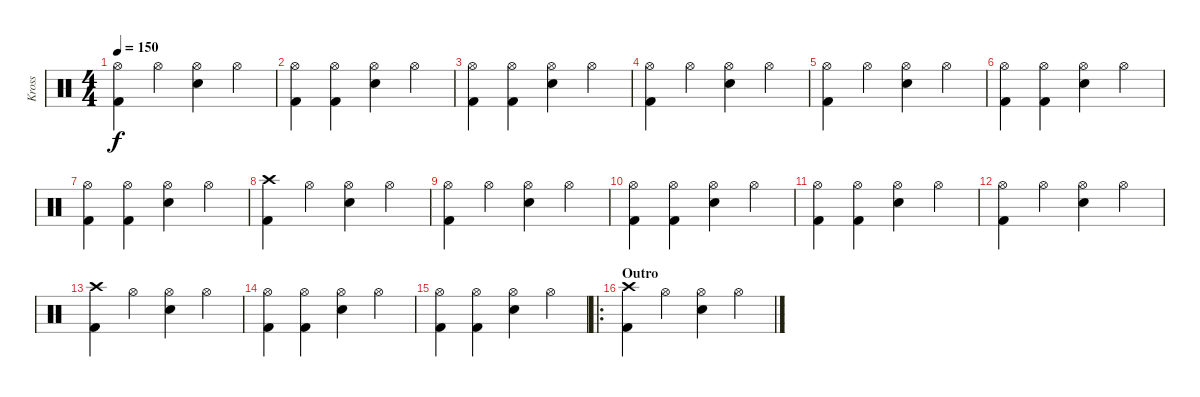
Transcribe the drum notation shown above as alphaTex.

\track ("Kross" "Kross") {instrument percussion}
\staff {score}
\articulation defaults
\ts (4 4)
\tempo 150
\clef neutral
\ks c
("Hi-Hat (open)" "Kick (hit) 2").4{dy f} "Hi-Hat (open)".4 ("Hi-Hat (open)" "Snare (hit) 2").4 "Hi-Hat (open)".4 |
("Hi-Hat (open)" "Kick (hit) 2").4 ("Hi-Hat (open)" "Kick (hit) 2").4 ("Hi-Hat (open)" "Snare (hit) 2").4 "Hi-Hat (open)".4 |
("Hi-Hat (open)" "Kick (hit) 2").4 ("Hi-Hat (open)" "Kick (hit) 2").4 ("Hi-Hat (open)" "Snare (hit) 2").4 "Hi-Hat (open)".4 |
("Hi-Hat (open)" "Kick (hit) 2").4 "Hi-Hat (open)".4 ("Hi-Hat (open)" "Snare (hit) 2").4 "Hi-Hat (open)".4 |
("Hi-Hat (open)" "Kick (hit) 2").4 "Hi-Hat (open)".4 ("Hi-Hat (open)" "Snare (hit) 2").4 "Hi-Hat (open)".4 |
("Hi-Hat (open)" "Kick (hit) 2").4 ("Hi-Hat (open)" "Kick (hit) 2").4 ("Hi-Hat (open)" "Snare (hit) 2").4 "Hi-Hat (open)".4 |
("Hi-Hat (open)" "Kick (hit) 2").4 ("Hi-Hat (open)" "Kick (hit) 2").4 ("Hi-Hat (open)" "Snare (hit) 2").4 "Hi-Hat (open)".4 |
("Crash high (hit)" "Kick (hit) 2").4 "Hi-Hat (open)".4 ("Hi-Hat (open)" "Snare (hit) 2").4 "Hi-Hat (open)".4 |
("Hi-Hat (open)" "Kick (hit) 2").4 "Hi-Hat (open)".4 ("Hi-Hat (open)" "Snare (hit) 2").4 "Hi-Hat (open)".4 |
("Hi-Hat (open)" "Kick (hit) 2").4 ("Hi-Hat (open)" "Kick (hit) 2").4 ("Hi-Hat (open)" "Snare (hit) 2").4 "Hi-Hat (open)".4 |
("Hi-Hat (open)" "Kick (hit) 2").4 ("Hi-Hat (open)" "Kick (hit) 2").4 ("Hi-Hat (open)" "Snare (hit) 2").4 "Hi-Hat (open)".4 |
("Hi-Hat (open)" "Kick (hit) 2").4 "Hi-Hat (open)".4 ("Hi-Hat (open)" "Snare (hit) 2").4 "Hi-Hat (open)".4 |
("Crash high (hit)" "Kick (hit) 2").4 "Hi-Hat (open)".4 ("Hi-Hat (open)" "Snare (hit) 2").4 "Hi-Hat (open)".4 |
("Hi-Hat (open)" "Kick (hit) 2").4 ("Hi-Hat (open)" "Kick (hit) 2").4 ("Hi-Hat (open)" "Snare (hit) 2").4 "Hi-Hat (open)".4 |
("Hi-Hat (open)" "Kick (hit) 2").4 ("Hi-Hat (open)" "Kick (hit) 2").4 ("Hi-Hat (open)" "Snare (hit) 2").4 "Hi-Hat (open)".4 |
\ro
\section ("" "Outro")
("Crash high (hit)" "Kick (hit) 2").4 "Hi-Hat (open)".4 ("Hi-Hat (open)" "Snare (hit) 2").4 "Hi-Hat (open)".4
